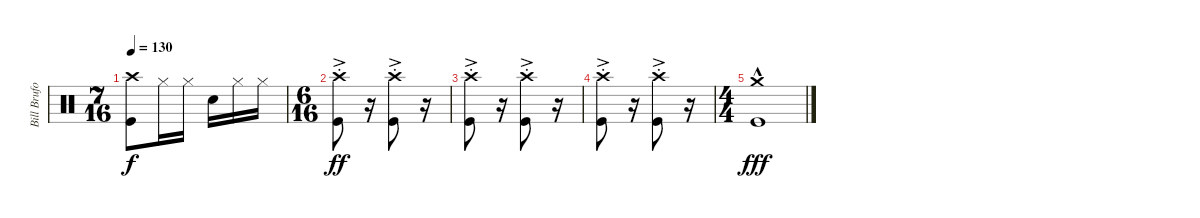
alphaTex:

\track ("Bill Bruford" "Bill Brufo") {instrument percussion}
\staff {score}
\articulation defaults
\ts (7 16)
\tempo 130
\clef neutral
\ks c
("Crash high (hit)" "Kick (hit)").8{dy f} "Hi-Hat (closed)".16 "Hi-Hat (closed)".16 "Snare (hit) 2".16 "Hi-Hat (closed)".16 "Hi-Hat (closed)".16 |
\ts (6 16)
("Crash high (hit)"{ac st} "Kick (hit)"{ac}).8{dy ff} r.16 ("Crash high (hit)"{ac st} "Kick (hit)"{ac}).8 r.16 |
("Crash high (hit)"{ac st} "Kick (hit)"{ac}).8 r.16 ("Crash high (hit)"{ac st} "Kick (hit)"{ac}).8 r.16 |
("Crash high (hit)"{ac st} "Kick (hit)"{ac}).8 r.16 ("Crash high (hit)"{ac st} "Kick (hit)"{ac}).8 r.16 |
\ts (4 4)
("Crash medium (hit)"{hac} "Kick (hit)"{hac}).1{dy fff}
